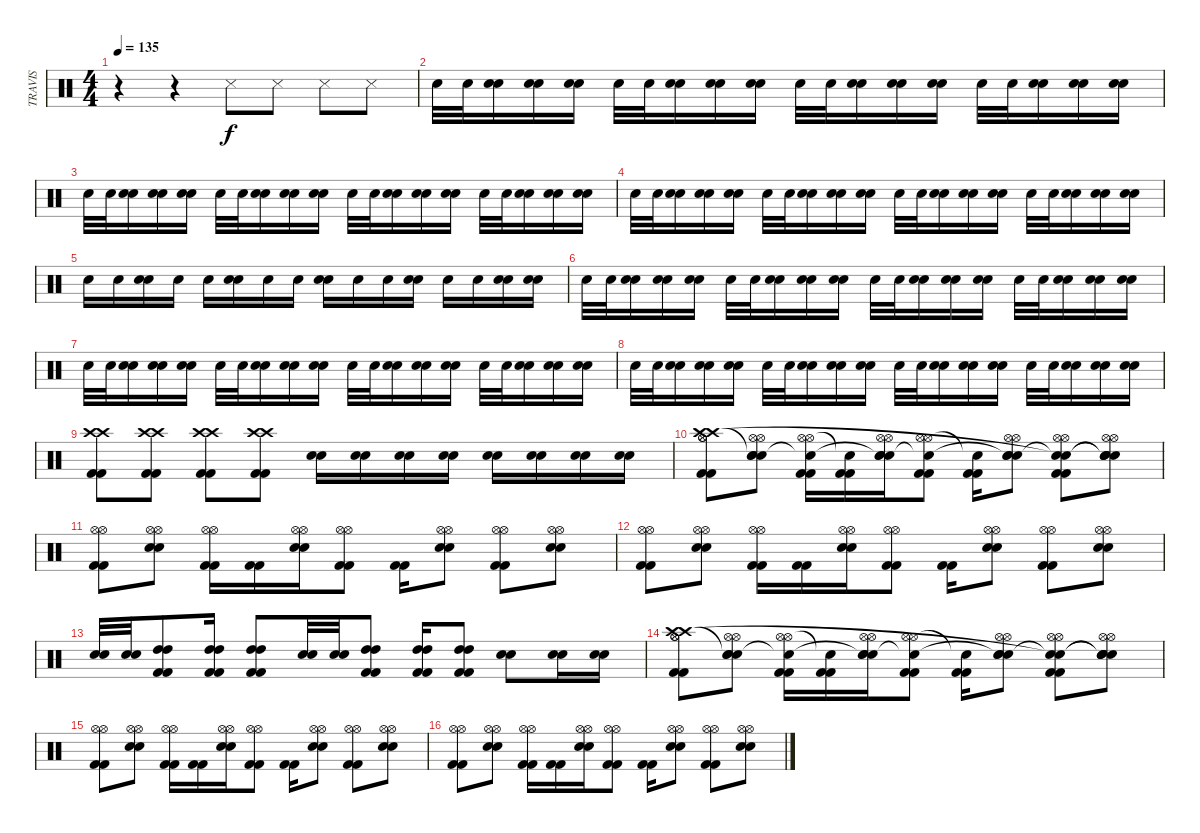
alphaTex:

\track ("TRAVIS" "TRAVIS") {instrument percussion}
\staff {score}
\articulation defaults
\ts (4 4)
\tempo 135
\clef neutral
\ks c
r.4{dy f} r.4 "Snare (side stick) 3".8 "Snare (side stick) 3".8 "Snare (side stick) 3".8 "Snare (side stick) 3".8 |
"Snare (hit) 2".32 "Snare (hit) 2".32 ("Snare (hit) 2" "Snare (hit) 2").16 ("Snare (hit) 2" "Snare (hit) 2").16 ("Snare (hit) 2" "Snare (hit) 2").16 "Snare (hit) 2".32 "Snare (hit) 2".32 ("Snare (hit) 2" "Snare (hit) 2").16 ("Snare (hit) 2" "Snare (hit) 2").16 ("Snare (hit) 2" "Snare (hit) 2").16 "Snare (hit) 2".32 "Snare (hit) 2".32 ("Snare (hit) 2" "Snare (hit) 2").16 ("Snare (hit) 2" "Snare (hit) 2").16 ("Snare (hit) 2" "Snare (hit) 2").16 "Snare (hit) 2".32 "Snare (hit) 2".32 ("Snare (hit) 2" "Snare (hit) 2").16 ("Snare (hit) 2" "Snare (hit) 2").16 ("Snare (hit) 2" "Snare (hit) 2").16 |
"Snare (hit) 2".32 "Snare (hit) 2".32 ("Snare (hit) 2" "Snare (hit) 2").16 ("Snare (hit) 2" "Snare (hit) 2").16 ("Snare (hit) 2" "Snare (hit) 2").16 "Snare (hit) 2".32 "Snare (hit) 2".32 ("Snare (hit) 2" "Snare (hit) 2").16 ("Snare (hit) 2" "Snare (hit) 2").16 ("Snare (hit) 2" "Snare (hit) 2").16 "Snare (hit) 2".32 "Snare (hit) 2".32 ("Snare (hit) 2" "Snare (hit) 2").16 ("Snare (hit) 2" "Snare (hit) 2").16 ("Snare (hit) 2" "Snare (hit) 2").16 "Snare (hit) 2".32 "Snare (hit) 2".32 ("Snare (hit) 2" "Snare (hit) 2").16 ("Snare (hit) 2" "Snare (hit) 2").16 ("Snare (hit) 2" "Snare (hit) 2").16 |
"Snare (hit) 2".32 "Snare (hit) 2".32 ("Snare (hit) 2" "Snare (hit) 2").16 ("Snare (hit) 2" "Snare (hit) 2").16 ("Snare (hit) 2" "Snare (hit) 2").16 "Snare (hit) 2".32 "Snare (hit) 2".32 ("Snare (hit) 2" "Snare (hit) 2").16 ("Snare (hit) 2" "Snare (hit) 2").16 ("Snare (hit) 2" "Snare (hit) 2").16 "Snare (hit) 2".32 "Snare (hit) 2".32 ("Snare (hit) 2" "Snare (hit) 2").16 ("Snare (hit) 2" "Snare (hit) 2").16 ("Snare (hit) 2" "Snare (hit) 2").16 "Snare (hit) 2".32 "Snare (hit) 2".32 ("Snare (hit) 2" "Snare (hit) 2").16 ("Snare (hit) 2" "Snare (hit) 2").16 ("Snare (hit) 2" "Snare (hit) 2").16 |
"Snare (hit) 2".16 "Snare (hit) 2".16 ("Snare (hit) 2" "Snare (hit) 2").16 "Snare (hit) 2".16 "Snare (hit) 2".16 ("Snare (hit) 2" "Snare (hit) 2").16 "Snare (hit) 2".16 "Snare (hit) 2".16 ("Snare (hit) 2" "Snare (hit) 2").16 "Snare (hit) 2".16 "Snare (hit) 2".16 ("Snare (hit) 2" "Snare (hit) 2").16 "Snare (hit) 2".16 "Snare (hit) 2".16 ("Snare (hit) 2" "Snare (hit) 2").16 ("Snare (hit) 2" "Snare (hit) 2").16 |
"Snare (hit) 2".32 "Snare (hit) 2".32 ("Snare (hit) 2" "Snare (hit) 2").16 ("Snare (hit) 2" "Snare (hit) 2").16 ("Snare (hit) 2" "Snare (hit) 2").16 "Snare (hit) 2".32 "Snare (hit) 2".32 ("Snare (hit) 2" "Snare (hit) 2").16 ("Snare (hit) 2" "Snare (hit) 2").16 ("Snare (hit) 2" "Snare (hit) 2").16 "Snare (hit) 2".32 "Snare (hit) 2".32 ("Snare (hit) 2" "Snare (hit) 2").16 ("Snare (hit) 2" "Snare (hit) 2").16 ("Snare (hit) 2" "Snare (hit) 2").16 "Snare (hit) 2".32 "Snare (hit) 2".32 ("Snare (hit) 2" "Snare (hit) 2").16 ("Snare (hit) 2" "Snare (hit) 2").16 ("Snare (hit) 2" "Snare (hit) 2").16 |
"Snare (hit) 2".32 "Snare (hit) 2".32 ("Snare (hit) 2" "Snare (hit) 2").16 ("Snare (hit) 2" "Snare (hit) 2").16 ("Snare (hit) 2" "Snare (hit) 2").16 "Snare (hit) 2".32 "Snare (hit) 2".32 ("Snare (hit) 2" "Snare (hit) 2").16 ("Snare (hit) 2" "Snare (hit) 2").16 ("Snare (hit) 2" "Snare (hit) 2").16 "Snare (hit) 2".32 "Snare (hit) 2".32 ("Snare (hit) 2" "Snare (hit) 2").16 ("Snare (hit) 2" "Snare (hit) 2").16 ("Snare (hit) 2" "Snare (hit) 2").16 "Snare (hit) 2".32 "Snare (hit) 2".32 ("Snare (hit) 2" "Snare (hit) 2").16 ("Snare (hit) 2" "Snare (hit) 2").16 ("Snare (hit) 2" "Snare (hit) 2").16 |
"Snare (hit) 2".32 "Snare (hit) 2".32 ("Snare (hit) 2" "Snare (hit) 2").16 ("Snare (hit) 2" "Snare (hit) 2").16 ("Snare (hit) 2" "Snare (hit) 2").16 "Snare (hit) 2".32 "Snare (hit) 2".32 ("Snare (hit) 2" "Snare (hit) 2").16 ("Snare (hit) 2" "Snare (hit) 2").16 ("Snare (hit) 2" "Snare (hit) 2").16 "Snare (hit) 2".32 "Snare (hit) 2".32 ("Snare (hit) 2" "Snare (hit) 2").16 ("Snare (hit) 2" "Snare (hit) 2").16 ("Snare (hit) 2" "Snare (hit) 2").16 "Snare (hit) 2".32 "Snare (hit) 2".32 ("Snare (hit) 2" "Snare (hit) 2").16 ("Snare (hit) 2" "Snare (hit) 2").16 ("Snare (hit) 2" "Snare (hit) 2").16 |
("Crash high (hit)" "Crash high (hit)" "Kick (hit) 2" "Kick (hit) 2").8 ("Crash high (hit)" "Crash high (hit)" "Kick (hit) 2" "Kick (hit) 2").8 ("Crash high (hit)" "Crash high (hit)" "Kick (hit) 2" "Kick (hit) 2").8 ("Crash high (hit)" "Crash high (hit)" "Kick (hit) 2" "Kick (hit) 2").8 ("Snare (hit) 2" "Snare (hit) 2").16 ("Snare (hit) 2" "Snare (hit) 2").16 ("Snare (hit) 2" "Snare (hit) 2").16 ("Snare (hit) 2" "Snare (hit) 2").16 ("Snare (hit) 2" "Snare (hit) 2").16 ("Snare (hit) 2" "Snare (hit) 2").16 ("Snare (hit) 2" "Snare (hit) 2").16 ("Snare (hit) 2" "Snare (hit) 2").16 |
("Kick (hit) 2" "Kick (hit) 2" "Hi-Hat (open)" "Hi-Hat (open)" "Crash high (hit)" "Crash high (hit)").8 ("Snare (hit) 2" "Snare (hit) 2" "Hi-Hat (open)" "Hi-Hat (open)" "Snare (hit)"{t}).8 ("Kick (hit) 2" "Kick (hit) 2" "Hi-Hat (open)" "Hi-Hat (open)" "Snare (hit)"{t}).16 ("Kick (hit) 2" "Kick (hit) 2" "Snare (hit)"{t}).16 ("Snare (hit) 2" "Snare (hit) 2" "Hi-Hat (open)" "Hi-Hat (open)" "Snare (hit)"{t}).16 ("Kick (hit) 2" "Kick (hit) 2" "Hi-Hat (open)" "Hi-Hat (open)" "Snare (hit)"{t}).8 ("Kick (hit) 2" "Kick (hit) 2" "Snare (hit)"{t}).16 ("Snare (hit) 2" "Snare (hit) 2" "Hi-Hat (open)" "Hi-Hat (open)" "Snare (hit)"{t}).8 ("Kick (hit) 2" "Kick (hit) 2" "Hi-Hat (open)" "Hi-Hat (open)" "Snare (hit)"{t} "Snare (hit)"{t}).8 ("Snare (hit) 2" "Snare (hit) 2" "Hi-Hat (open)" "Hi-Hat (open)" "Snare (hit)"{t} "Snare (hit)"{t}).8 |
("Kick (hit) 2" "Kick (hit) 2" "Hi-Hat (open)" "Hi-Hat (open)").8 ("Snare (hit) 2" "Snare (hit) 2" "Hi-Hat (open)" "Hi-Hat (open)").8 ("Kick (hit) 2" "Kick (hit) 2" "Hi-Hat (open)" "Hi-Hat (open)").16 ("Kick (hit) 2" "Kick (hit) 2").16 ("Snare (hit) 2" "Snare (hit) 2" "Hi-Hat (open)" "Hi-Hat (open)").16 ("Kick (hit) 2" "Kick (hit) 2" "Hi-Hat (open)" "Hi-Hat (open)").8 ("Kick (hit) 2" "Kick (hit) 2").16 ("Snare (hit) 2" "Snare (hit) 2" "Hi-Hat (open)" "Hi-Hat (open)").8 ("Kick (hit) 2" "Kick (hit) 2" "Hi-Hat (open)" "Hi-Hat (open)").8 ("Snare (hit) 2" "Snare (hit) 2" "Hi-Hat (open)" "Hi-Hat (open)").8 |
("Kick (hit) 2" "Kick (hit) 2" "Hi-Hat (open)" "Hi-Hat (open)").8 ("Snare (hit) 2" "Snare (hit) 2" "Hi-Hat (open)" "Hi-Hat (open)").8 ("Kick (hit) 2" "Kick (hit) 2" "Hi-Hat (open)" "Hi-Hat (open)").16 ("Kick (hit) 2" "Kick (hit) 2").16 ("Snare (hit) 2" "Snare (hit) 2" "Hi-Hat (open)" "Hi-Hat (open)").16 ("Kick (hit) 2" "Kick (hit) 2" "Hi-Hat (open)" "Hi-Hat (open)").8 ("Kick (hit) 2" "Kick (hit) 2").16 ("Snare (hit) 2" "Snare (hit) 2" "Hi-Hat (open)" "Hi-Hat (open)").8 ("Kick (hit) 2" "Kick (hit) 2" "Hi-Hat (open)" "Hi-Hat (open)").8 ("Snare (hit) 2" "Snare (hit) 2" "Hi-Hat (open)" "Hi-Hat (open)").8 |
("Snare (hit) 2" "Snare (hit) 2").32 ("Snare (hit) 2" "Snare (hit) 2").32 ("Kick (hit) 2" "Kick (hit) 2" "High Tom (hit)" "High Tom (hit)").8 ("Kick (hit) 2" "Kick (hit) 2" "High Tom (hit)" "High Tom (hit)").16 ("Kick (hit) 2" "Kick (hit) 2" "High Tom (hit)" "High Tom (hit)").8 ("Snare (hit) 2" "Snare (hit) 2").32 ("Snare (hit) 2" "Snare (hit) 2").32 ("Kick (hit) 2" "Kick (hit) 2" "High Tom (hit)" "High Tom (hit)").8 ("Kick (hit) 2" "Kick (hit) 2" "High Tom (hit)" "High Tom (hit)").16 ("Kick (hit) 2" "Kick (hit) 2" "High Tom (hit)" "High Tom (hit)").8 ("Snare (hit) 2" "Snare (hit) 2").8 ("Snare (hit) 2" "Snare (hit) 2").16 ("Snare (hit) 2" "Snare (hit) 2").16 |
("Kick (hit) 2" "Kick (hit) 2" "Hi-Hat (open)" "Hi-Hat (open)" "Crash high (hit)" "Crash high (hit)").8 ("Snare (hit) 2" "Snare (hit) 2" "Hi-Hat (open)" "Hi-Hat (open)" "Snare (hit)"{t}).8 ("Kick (hit) 2" "Kick (hit) 2" "Hi-Hat (open)" "Hi-Hat (open)" "Snare (hit)"{t}).16 ("Kick (hit) 2" "Kick (hit) 2" "Snare (hit)"{t}).16 ("Snare (hit) 2" "Snare (hit) 2" "Hi-Hat (open)" "Hi-Hat (open)" "Snare (hit)"{t}).16 ("Kick (hit) 2" "Kick (hit) 2" "Hi-Hat (open)" "Hi-Hat (open)" "Snare (hit)"{t}).8 ("Kick (hit) 2" "Kick (hit) 2" "Snare (hit)"{t}).16 ("Snare (hit) 2" "Snare (hit) 2" "Hi-Hat (open)" "Hi-Hat (open)" "Snare (hit)"{t}).8 ("Kick (hit) 2" "Kick (hit) 2" "Hi-Hat (open)" "Hi-Hat (open)" "Snare (hit)"{t} "Snare (hit)"{t}).8 ("Snare (hit) 2" "Snare (hit) 2" "Hi-Hat (open)" "Hi-Hat (open)" "Snare (hit)"{t} "Snare (hit)"{t}).8 |
("Kick (hit) 2" "Kick (hit) 2" "Hi-Hat (open)" "Hi-Hat (open)").8 ("Snare (hit) 2" "Snare (hit) 2" "Hi-Hat (open)" "Hi-Hat (open)").8 ("Kick (hit) 2" "Kick (hit) 2" "Hi-Hat (open)" "Hi-Hat (open)").16 ("Kick (hit) 2" "Kick (hit) 2").16 ("Snare (hit) 2" "Snare (hit) 2" "Hi-Hat (open)" "Hi-Hat (open)").16 ("Kick (hit) 2" "Kick (hit) 2" "Hi-Hat (open)" "Hi-Hat (open)").8 ("Kick (hit) 2" "Kick (hit) 2").16 ("Snare (hit) 2" "Snare (hit) 2" "Hi-Hat (open)" "Hi-Hat (open)").8 ("Kick (hit) 2" "Kick (hit) 2" "Hi-Hat (open)" "Hi-Hat (open)").8 ("Snare (hit) 2" "Snare (hit) 2" "Hi-Hat (open)" "Hi-Hat (open)").8 |
("Kick (hit) 2" "Kick (hit) 2" "Hi-Hat (open)" "Hi-Hat (open)").8 ("Snare (hit) 2" "Snare (hit) 2" "Hi-Hat (open)" "Hi-Hat (open)").8 ("Kick (hit) 2" "Kick (hit) 2" "Hi-Hat (open)" "Hi-Hat (open)").16 ("Kick (hit) 2" "Kick (hit) 2").16 ("Snare (hit) 2" "Snare (hit) 2" "Hi-Hat (open)" "Hi-Hat (open)").16 ("Kick (hit) 2" "Kick (hit) 2" "Hi-Hat (open)" "Hi-Hat (open)").8 ("Kick (hit) 2" "Kick (hit) 2").16 ("Snare (hit) 2" "Snare (hit) 2" "Hi-Hat (open)" "Hi-Hat (open)").8 ("Kick (hit) 2" "Kick (hit) 2" "Hi-Hat (open)" "Hi-Hat (open)").8 ("Snare (hit) 2" "Snare (hit) 2" "Hi-Hat (open)" "Hi-Hat (open)").8
